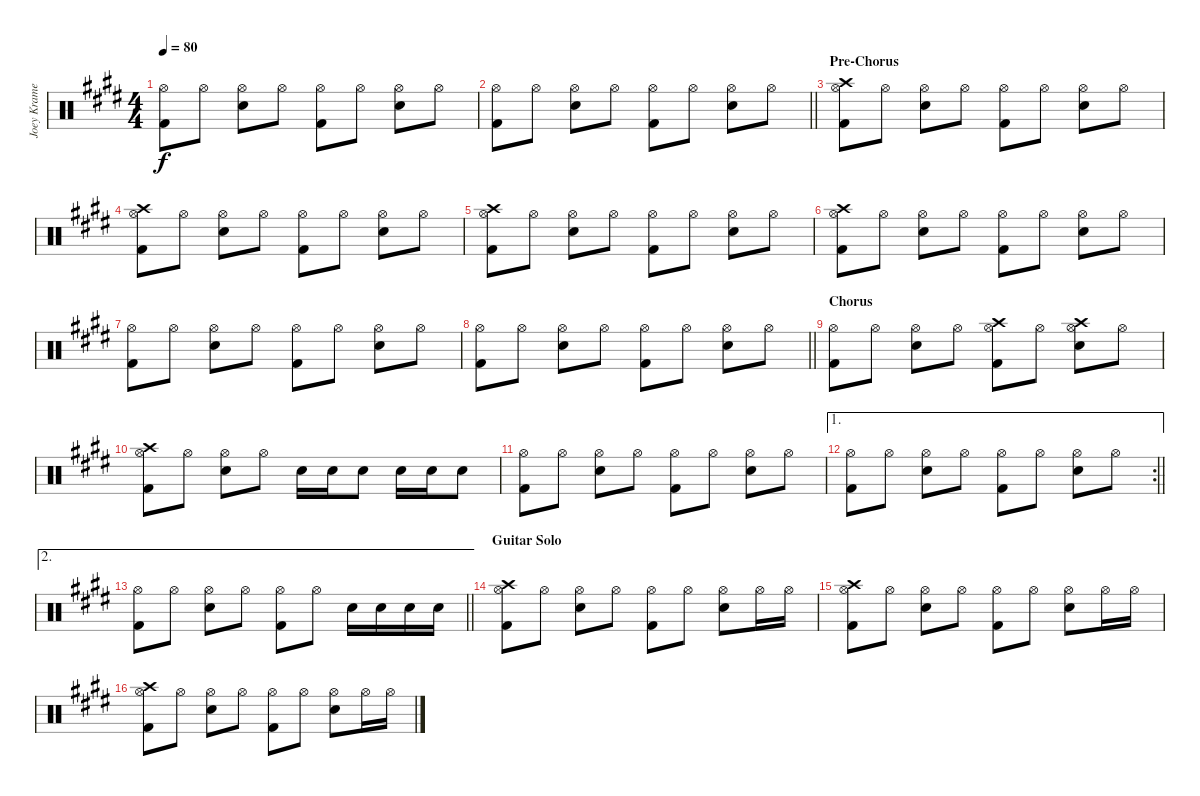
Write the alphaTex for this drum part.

\track ("Joey Kramer (Percussion)" "Joey Krame") {instrument percussion}
\staff {score}
\articulation defaults
\ts (4 4)
\tempo 80
\clef neutral
\ks e
("Hi-Hat (open)" "Kick (hit) 2").8{dy f} "Hi-Hat (open)".8 ("Hi-Hat (open)" "Electric Snare (hit)").8 "Hi-Hat (open)".8 ("Hi-Hat (open)" "Kick (hit) 2").8 "Hi-Hat (open)".8 ("Hi-Hat (open)" "Electric Snare (hit)").8 "Hi-Hat (open)".8 |
\barLineRight lightlight
("Hi-Hat (open)" "Kick (hit) 2").8 "Hi-Hat (open)".8 ("Hi-Hat (open)" "Electric Snare (hit)").8 "Hi-Hat (open)".8 ("Hi-Hat (open)" "Kick (hit) 2").8 "Hi-Hat (open)".8 ("Hi-Hat (open)" "Electric Snare (hit)").8 "Hi-Hat (open)".8 |
\section ("" "Pre-Chorus")
("Crash high (hit)" "Hi-Hat (open)" "Kick (hit) 2").8 "Hi-Hat (open)".8 ("Hi-Hat (open)" "Electric Snare (hit)").8 "Hi-Hat (open)".8 ("Hi-Hat (open)" "Kick (hit) 2").8 "Hi-Hat (open)".8 ("Hi-Hat (open)" "Electric Snare (hit)").8 "Hi-Hat (open)".8 |
("Crash high (hit)" "Hi-Hat (open)" "Kick (hit) 2").8 "Hi-Hat (open)".8 ("Hi-Hat (open)" "Electric Snare (hit)").8 "Hi-Hat (open)".8 ("Hi-Hat (open)" "Kick (hit) 2").8 "Hi-Hat (open)".8 ("Hi-Hat (open)" "Electric Snare (hit)").8 "Hi-Hat (open)".8 |
("Crash high (hit)" "Hi-Hat (open)" "Kick (hit) 2").8 "Hi-Hat (open)".8 ("Hi-Hat (open)" "Electric Snare (hit)").8 "Hi-Hat (open)".8 ("Hi-Hat (open)" "Kick (hit) 2").8 "Hi-Hat (open)".8 ("Hi-Hat (open)" "Electric Snare (hit)").8 "Hi-Hat (open)".8 |
("Crash high (hit)" "Hi-Hat (open)" "Kick (hit) 2").8 "Hi-Hat (open)".8 ("Hi-Hat (open)" "Electric Snare (hit)").8 "Hi-Hat (open)".8 ("Hi-Hat (open)" "Kick (hit) 2").8 "Hi-Hat (open)".8 ("Hi-Hat (open)" "Electric Snare (hit)").8 "Hi-Hat (open)".8 |
("Hi-Hat (open)" "Kick (hit) 2").8 "Hi-Hat (open)".8 ("Hi-Hat (open)" "Electric Snare (hit)").8 "Hi-Hat (open)".8 ("Hi-Hat (open)" "Kick (hit) 2").8 "Hi-Hat (open)".8 ("Hi-Hat (open)" "Electric Snare (hit)").8 "Hi-Hat (open)".8 |
\barLineRight lightlight
("Hi-Hat (open)" "Kick (hit) 2").8 "Hi-Hat (open)".8 ("Hi-Hat (open)" "Electric Snare (hit)").8 "Hi-Hat (open)".8 ("Hi-Hat (open)" "Kick (hit) 2").8 "Hi-Hat (open)".8 ("Hi-Hat (open)" "Electric Snare (hit)").8 "Hi-Hat (open)".8 |
\section ("" "Chorus")
("Hi-Hat (open)" "Kick (hit) 2").8 "Hi-Hat (open)".8 ("Hi-Hat (open)" "Electric Snare (hit)").8 "Hi-Hat (open)".8 ("Crash high (hit)" "Hi-Hat (open)" "Kick (hit) 2").8 "Hi-Hat (open)".8 ("Crash high (hit)" "Hi-Hat (open)" "Electric Snare (hit)").8 "Hi-Hat (open)".8 |
("Crash high (hit)" "Hi-Hat (open)" "Kick (hit) 2").8 "Hi-Hat (open)".8 ("Hi-Hat (open)" "Electric Snare (hit)").8 "Hi-Hat (open)".8 "Electric Snare (hit)".16 "Electric Snare (hit)".16 "Electric Snare (hit)".8 "Electric Snare (hit)".16 "Electric Snare (hit)".16 "Electric Snare (hit)".8 |
("Hi-Hat (open)" "Kick (hit) 2").8 "Hi-Hat (open)".8 ("Hi-Hat (open)" "Electric Snare (hit)").8 "Hi-Hat (open)".8 ("Hi-Hat (open)" "Kick (hit) 2").8 "Hi-Hat (open)".8 ("Hi-Hat (open)" "Electric Snare (hit)").8 "Hi-Hat (open)".8 |
\ae 1
\rc 2
\barLineRight lightlight
("Hi-Hat (open)" "Kick (hit) 2").8 "Hi-Hat (open)".8 ("Hi-Hat (open)" "Electric Snare (hit)").8 "Hi-Hat (open)".8 ("Hi-Hat (open)" "Kick (hit) 2").8 "Hi-Hat (open)".8 ("Hi-Hat (open)" "Electric Snare (hit)").8 "Hi-Hat (open)".8 |
\ae 2
\barLineRight lightlight
("Hi-Hat (open)" "Kick (hit) 2").8 "Hi-Hat (open)".8 ("Hi-Hat (open)" "Electric Snare (hit)").8 "Hi-Hat (open)".8 ("Hi-Hat (open)" "Kick (hit) 2").8 "Hi-Hat (open)".8 "Electric Snare (hit)".16 "Electric Snare (hit)".16 "Electric Snare (hit)".16 "Electric Snare (hit)".16 |
\section ("" "Guitar Solo")
("Crash high (hit)" "Hi-Hat (open)" "Kick (hit) 2").8 "Hi-Hat (open)".8 ("Hi-Hat (open)" "Electric Snare (hit)").8 "Hi-Hat (open)".8 ("Hi-Hat (open)" "Kick (hit) 2").8 "Hi-Hat (open)".8 ("Hi-Hat (open)" "Electric Snare (hit)").8 "Hi-Hat (open)".16 "Hi-Hat (open)".16 |
("Crash high (hit)" "Hi-Hat (open)" "Kick (hit) 2").8 "Hi-Hat (open)".8 ("Hi-Hat (open)" "Electric Snare (hit)").8 "Hi-Hat (open)".8 ("Hi-Hat (open)" "Kick (hit) 2").8 "Hi-Hat (open)".8 ("Hi-Hat (open)" "Electric Snare (hit)").8 "Hi-Hat (open)".16 "Hi-Hat (open)".16 |
("Crash high (hit)" "Hi-Hat (open)" "Kick (hit) 2").8 "Hi-Hat (open)".8 ("Hi-Hat (open)" "Electric Snare (hit)").8 "Hi-Hat (open)".8 ("Hi-Hat (open)" "Kick (hit) 2").8 "Hi-Hat (open)".8 ("Hi-Hat (open)" "Electric Snare (hit)").8 "Hi-Hat (open)".16 "Hi-Hat (open)".16
